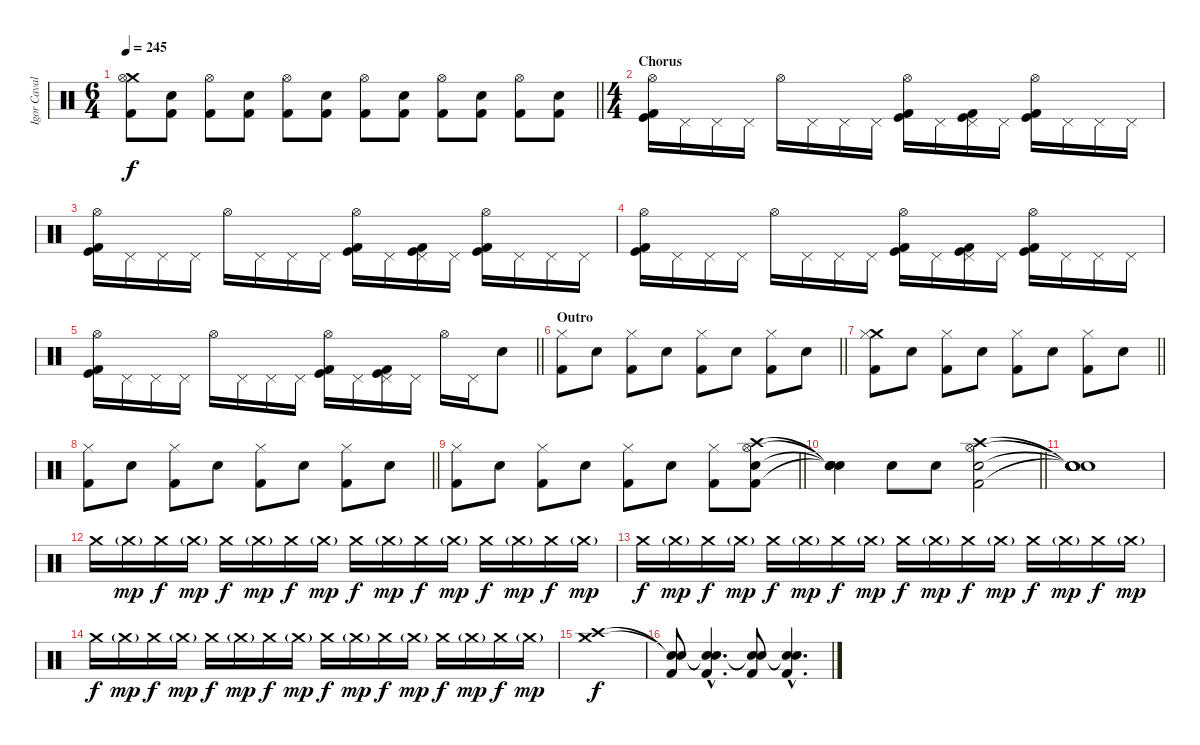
\track ("Igor Cavalera" "Igor Caval") {instrument percussion}
\staff {score}
\articulation defaults
\ts (6 4)
\tempo 245
\clef neutral
\barLineRight lightlight
\ks c
("Crash medium (hit)" "Hi-Hat (open)" "Kick (hit) 2").8{dy f} ("Electric Snare (hit)" "Kick (hit) 2").8 ("Hi-Hat (open)" "Kick (hit) 2").8 ("Electric Snare (hit)" "Kick (hit) 2").8 ("Hi-Hat (open)" "Kick (hit) 2").8 ("Electric Snare (hit)" "Kick (hit) 2").8 ("Hi-Hat (open)" "Kick (hit) 2").8 ("Electric Snare (hit)" "Kick (hit) 2").8 ("Hi-Hat (open)" "Kick (hit) 2").8 ("Electric Snare (hit)" "Kick (hit) 2").8 ("Hi-Hat (open)" "Kick (hit) 2").8 ("Electric Snare (hit)" "Kick (hit) 2").8 |
\ts (4 4)
\section ("" "Chorus")
("Hi-Hat (open)" "Kick (hit) 2" "Kick (hit)").16 "Pedal Hi-Hat (hit)".16 "Pedal Hi-Hat (hit)".16 "Pedal Hi-Hat (hit)".16 "Hi-Hat (open)".16 "Pedal Hi-Hat (hit)".16 "Pedal Hi-Hat (hit)".16 "Pedal Hi-Hat (hit)".16 ("Hi-Hat (open)" "Kick (hit) 2" "Kick (hit)").16 "Pedal Hi-Hat (hit)".16 ("Pedal Hi-Hat (hit)" "Kick (hit) 2" "Kick (hit)").16 "Pedal Hi-Hat (hit)".16 ("Hi-Hat (open)" "Kick (hit) 2" "Kick (hit)").16 "Pedal Hi-Hat (hit)".16 "Pedal Hi-Hat (hit)".16 "Pedal Hi-Hat (hit)".16 |
("Hi-Hat (open)" "Kick (hit) 2" "Kick (hit)").16 "Pedal Hi-Hat (hit)".16 "Pedal Hi-Hat (hit)".16 "Pedal Hi-Hat (hit)".16 "Hi-Hat (open)".16 "Pedal Hi-Hat (hit)".16 "Pedal Hi-Hat (hit)".16 "Pedal Hi-Hat (hit)".16 ("Hi-Hat (open)" "Kick (hit) 2" "Kick (hit)").16 "Pedal Hi-Hat (hit)".16 ("Pedal Hi-Hat (hit)" "Kick (hit) 2" "Kick (hit)").16 "Pedal Hi-Hat (hit)".16 ("Hi-Hat (open)" "Kick (hit) 2" "Kick (hit)").16 "Pedal Hi-Hat (hit)".16 "Pedal Hi-Hat (hit)".16 "Pedal Hi-Hat (hit)".16 |
("Hi-Hat (open)" "Kick (hit) 2" "Kick (hit)").16 "Pedal Hi-Hat (hit)".16 "Pedal Hi-Hat (hit)".16 "Pedal Hi-Hat (hit)".16 "Hi-Hat (open)".16 "Pedal Hi-Hat (hit)".16 "Pedal Hi-Hat (hit)".16 "Pedal Hi-Hat (hit)".16 ("Hi-Hat (open)" "Kick (hit) 2" "Kick (hit)").16 "Pedal Hi-Hat (hit)".16 ("Pedal Hi-Hat (hit)" "Kick (hit) 2" "Kick (hit)").16 "Pedal Hi-Hat (hit)".16 ("Hi-Hat (open)" "Kick (hit) 2" "Kick (hit)").16 "Pedal Hi-Hat (hit)".16 "Pedal Hi-Hat (hit)".16 "Pedal Hi-Hat (hit)".16 |
\barLineRight lightlight
("Hi-Hat (open)" "Kick (hit) 2" "Kick (hit)").16 "Pedal Hi-Hat (hit)".16 "Pedal Hi-Hat (hit)".16 "Pedal Hi-Hat (hit)".16 "Hi-Hat (open)".16 "Pedal Hi-Hat (hit)".16 "Pedal Hi-Hat (hit)".16 "Pedal Hi-Hat (hit)".16 ("Hi-Hat (open)" "Kick (hit) 2" "Kick (hit)").16 "Pedal Hi-Hat (hit)".16 ("Pedal Hi-Hat (hit)" "Kick (hit) 2" "Kick (hit)").16 "Pedal Hi-Hat (hit)".16 "Hi-Hat (open)".16 "Pedal Hi-Hat (hit)".16 "Electric Snare (hit)".8 |
\section ("" "Outro")
\barLineRight lightlight
("Hi-Hat (closed)" "Kick (hit) 2").8 "Electric Snare (hit)".8 ("Hi-Hat (closed)" "Kick (hit) 2").8 "Electric Snare (hit)".8 ("Hi-Hat (closed)" "Kick (hit) 2").8 "Electric Snare (hit)".8 ("Hi-Hat (closed)" "Kick (hit) 2").8 "Electric Snare (hit)".8 |
\barLineRight lightlight
("Crash medium (hit)" "Hi-Hat (closed)" "Kick (hit) 2").8 "Electric Snare (hit)".8 ("Hi-Hat (closed)" "Kick (hit) 2").8 "Electric Snare (hit)".8 ("Hi-Hat (closed)" "Kick (hit) 2").8 "Electric Snare (hit)".8 ("Hi-Hat (closed)" "Kick (hit) 2").8 "Electric Snare (hit)".8 |
\barLineRight lightlight
("Hi-Hat (closed)" "Kick (hit) 2").8 "Electric Snare (hit)".8 ("Hi-Hat (closed)" "Kick (hit) 2").8 "Electric Snare (hit)".8 ("Hi-Hat (closed)" "Kick (hit) 2").8 "Electric Snare (hit)".8 ("Hi-Hat (closed)" "Kick (hit) 2").8 "Electric Snare (hit)".8 |
\barLineRight lightlight
("Hi-Hat (closed)" "Kick (hit) 2").8 "Electric Snare (hit)".8 ("Hi-Hat (closed)" "Kick (hit) 2").8 "Electric Snare (hit)".8 ("Hi-Hat (closed)" "Kick (hit) 2").8 "Electric Snare (hit)".8 ("Hi-Hat (closed)" "Kick (hit) 2").8 ("Crash high (hit)" "Hi-Hat (open)" "Electric Snare (hit)" "Kick (hit) 2").8 |
\barLineRight lightlight
("Snare (hit)"{t} "Snare (hit)"{t} "Snare (hit)"{t} "Snare (hit)"{t}).4 "Electric Snare (hit)".8 "Electric Snare (hit)".8 ("Crash high (hit)" "Hi-Hat (open)" "Electric Snare (hit)" "Kick (hit) 2").2 |
("Snare (hit)"{t} "Snare (hit)"{t} "Snare (hit)"{t} "Snare (hit)"{t}).1 |
"Crash medium (hit)".16 "Crash medium (hit)"{g}.16{dy mp} "Crash medium (hit)".16{dy f} "Crash medium (hit)"{g}.16{dy mp} "Crash medium (hit)".16{dy f} "Crash medium (hit)"{g}.16{dy mp} "Crash medium (hit)".16{dy f} "Crash medium (hit)"{g}.16{dy mp} "Crash medium (hit)".16{dy f} "Crash medium (hit)"{g}.16{dy mp} "Crash medium (hit)".16{dy f} "Crash medium (hit)"{g}.16{dy mp} "Crash medium (hit)".16{dy f} "Crash medium (hit)"{g}.16{dy mp} "Crash medium (hit)".16{dy f} "Crash medium (hit)"{g}.16{dy mp} |
"Crash medium (hit)".16{dy f} "Crash medium (hit)"{g}.16{dy mp} "Crash medium (hit)".16{dy f} "Crash medium (hit)"{g}.16{dy mp} "Crash medium (hit)".16{dy f} "Crash medium (hit)"{g}.16{dy mp} "Crash medium (hit)".16{dy f} "Crash medium (hit)"{g}.16{dy mp} "Crash medium (hit)".16{dy f} "Crash medium (hit)"{g}.16{dy mp} "Crash medium (hit)".16{dy f} "Crash medium (hit)"{g}.16{dy mp} "Crash medium (hit)".16{dy f} "Crash medium (hit)"{g}.16{dy mp} "Crash medium (hit)".16{dy f} "Crash medium (hit)"{g}.16{dy mp} |
"Crash medium (hit)".16{dy f} "Crash medium (hit)"{g}.16{dy mp} "Crash medium (hit)".16{dy f} "Crash medium (hit)"{g}.16{dy mp} "Crash medium (hit)".16{dy f} "Crash medium (hit)"{g}.16{dy mp} "Crash medium (hit)".16{dy f} "Crash medium (hit)"{g}.16{dy mp} "Crash medium (hit)".16{dy f} "Crash medium (hit)"{g}.16{dy mp} "Crash medium (hit)".16{dy f} "Crash medium (hit)"{g}.16{dy mp} "Crash medium (hit)".16{dy f} "Crash medium (hit)"{g}.16{dy mp} "Crash medium (hit)".16{dy f} "Crash medium (hit)"{g}.16{dy mp} |
("Crash medium (hit)" "Crash high (hit)").1{dy f} |
("Snare (hit)"{t} "Snare (hit)"{t} "Kick (hit) 2").8 ("Snare (hit)"{hac t} "Snare (hit)"{hac t} "Kick (hit) 2"{hac}).4{d} ("Snare (hit)"{t} "Snare (hit)"{t} "Kick (hit) 2").8 ("Snare (hit)"{hac t} "Snare (hit)"{hac t} "Kick (hit) 2"{hac}).4{d}
